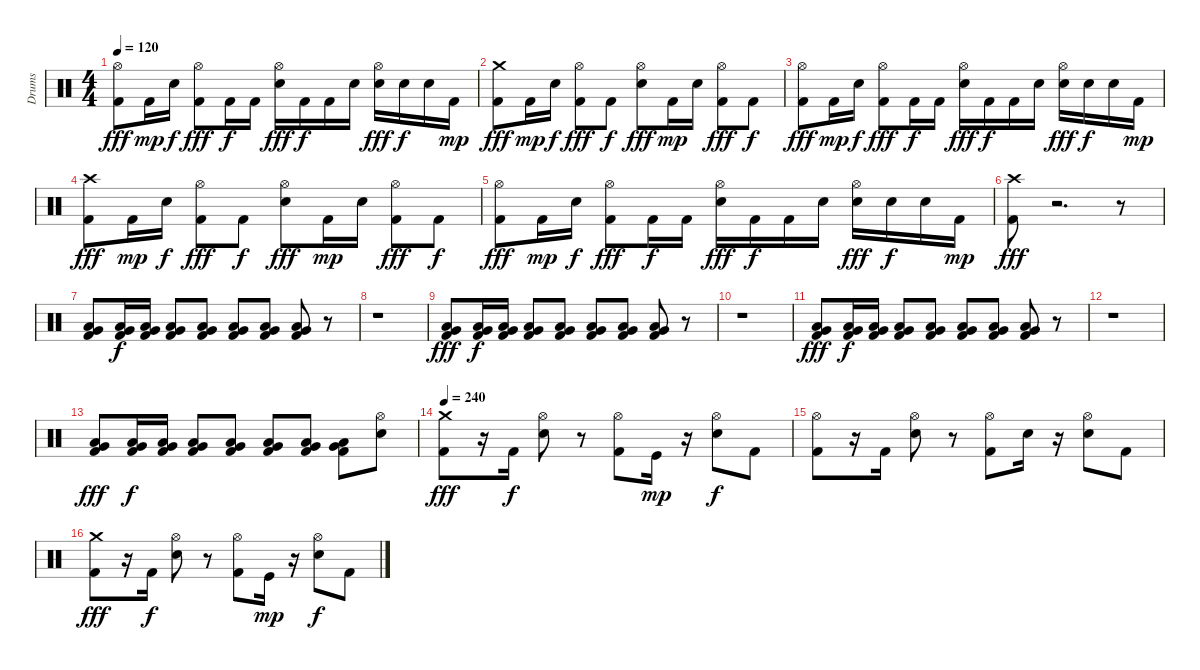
\track ("Drums" "Drums") {instrument percussion}
\staff {score}
\articulation defaults
\ts (4 4)
\tempo 120
\clef neutral
\ks c
("Kick (hit) 2" "Hi-Hat (open)").8{dy fff} "Kick (hit) 2".16{dy mp} "Snare (hit) 2".16{dy f} ("Kick (hit) 2" "Hi-Hat (open)").8{dy fff} "Kick (hit) 2".16{dy f} "Kick (hit) 2".16 ("Electric Snare (hit)" "Hi-Hat (open)").16{dy fff} "Kick (hit) 2".16{dy f} "Kick (hit) 2".16 "Snare (hit) 2".16 ("Snare (hit) 2" "Hi-Hat (open)").16{dy fff} "Snare (hit) 2".16{dy f} "Snare (hit) 2".16 "Kick (hit) 2".16{dy mp} |
("Kick (hit) 2" "Crash medium (hit)").8{dy fff} "Kick (hit) 2".16{dy mp} "Snare (hit) 2".16{dy f} ("Kick (hit) 2" "Hi-Hat (open)").8{dy fff} "Kick (hit) 2".8{dy f} ("Electric Snare (hit)" "Hi-Hat (open)").8{dy fff} "Kick (hit) 2".16{dy mp} "Snare (hit) 2".16 ("Kick (hit) 2" "Hi-Hat (open)").8{dy fff} "Kick (hit) 2".8{dy f} |
("Kick (hit) 2" "Hi-Hat (open)").8{dy fff} "Kick (hit) 2".16{dy mp} "Snare (hit) 2".16{dy f} ("Kick (hit) 2" "Hi-Hat (open)").8{dy fff} "Kick (hit) 2".16{dy f} "Kick (hit) 2".16 ("Electric Snare (hit)" "Hi-Hat (open)").16{dy fff} "Kick (hit) 2".16{dy f} "Kick (hit) 2".16 "Snare (hit) 2".16 ("Snare (hit) 2" "Hi-Hat (open)").16{dy fff} "Snare (hit) 2".16{dy f} "Snare (hit) 2".16 "Kick (hit) 2".16{dy mp} |
("Kick (hit) 2" "Crash high (hit)").8{dy fff} "Kick (hit) 2".16{dy mp} "Snare (hit) 2".16{dy f} ("Kick (hit) 2" "Hi-Hat (open)").8{dy fff} "Kick (hit) 2".8{dy f} ("Electric Snare (hit)" "Hi-Hat (open)").8{dy fff} "Kick (hit) 2".16{dy mp} "Snare (hit) 2".16 ("Kick (hit) 2" "Hi-Hat (open)").8{dy fff} "Kick (hit) 2".8{dy f} |
("Kick (hit) 2" "Hi-Hat (open)").8{dy fff} "Kick (hit) 2".16{dy mp} "Snare (hit) 2".16{dy f} ("Kick (hit) 2" "Hi-Hat (open)").8{dy fff} "Kick (hit) 2".16{dy f} "Kick (hit) 2".16 ("Electric Snare (hit)" "Hi-Hat (open)").16{dy fff} "Kick (hit) 2".16{dy f} "Kick (hit) 2".16 "Snare (hit) 2".16 ("Snare (hit) 2" "Hi-Hat (open)").16{dy fff} "Snare (hit) 2".16{dy f} "Snare (hit) 2".16 "Kick (hit) 2".16{dy mp} |
("Kick (hit) 2" "Crash high (hit)").8{dy fff} r.2{d} r.8 |
("Kick (hit) 2" "Very Low Tom (hit)" "Low Floor Tom (hit)").8 ("Kick (hit) 2" "Very Low Tom (hit)" "Low Floor Tom (hit)").16{dy f} ("Kick (hit) 2" "Very Low Tom (hit)" "Low Floor Tom (hit)").16 ("Kick (hit) 2" "Very Low Tom (hit)" "Low Floor Tom (hit)").8 ("Kick (hit) 2" "Very Low Tom (hit)" "Low Floor Tom (hit)").8 ("Kick (hit) 2" "Very Low Tom (hit)" "Low Floor Tom (hit)").8 ("Kick (hit) 2" "Very Low Tom (hit)" "Low Floor Tom (hit)").8 ("Kick (hit) 2" "Very Low Tom (hit)" "Low Floor Tom (hit)").8 r.8 |
r.1 |
("Kick (hit) 2" "Very Low Tom (hit)" "Low Floor Tom (hit)").8{dy fff} ("Kick (hit) 2" "Very Low Tom (hit)" "Low Floor Tom (hit)").16{dy f} ("Kick (hit) 2" "Very Low Tom (hit)" "Low Floor Tom (hit)").16 ("Kick (hit) 2" "Very Low Tom (hit)" "Low Floor Tom (hit)").8 ("Kick (hit) 2" "Very Low Tom (hit)" "Low Floor Tom (hit)").8 ("Kick (hit) 2" "Very Low Tom (hit)" "Low Floor Tom (hit)").8 ("Kick (hit) 2" "Very Low Tom (hit)" "Low Floor Tom (hit)").8 ("Kick (hit) 2" "Very Low Tom (hit)" "Low Floor Tom (hit)").8 r.8 |
r.1 |
("Kick (hit) 2" "Very Low Tom (hit)" "Low Floor Tom (hit)").8{dy fff} ("Kick (hit) 2" "Very Low Tom (hit)" "Low Floor Tom (hit)").16{dy f} ("Kick (hit) 2" "Very Low Tom (hit)" "Low Floor Tom (hit)").16 ("Kick (hit) 2" "Very Low Tom (hit)" "Low Floor Tom (hit)").8 ("Kick (hit) 2" "Very Low Tom (hit)" "Low Floor Tom (hit)").8 ("Kick (hit) 2" "Very Low Tom (hit)" "Low Floor Tom (hit)").8 ("Kick (hit) 2" "Very Low Tom (hit)" "Low Floor Tom (hit)").8 ("Kick (hit) 2" "Very Low Tom (hit)" "Low Floor Tom (hit)").8 r.8 |
r.1 |
("Kick (hit) 2" "Very Low Tom (hit)" "Low Floor Tom (hit)").8{dy fff} ("Kick (hit) 2" "Very Low Tom (hit)" "Low Floor Tom (hit)").16{dy f} ("Kick (hit) 2" "Very Low Tom (hit)" "Low Floor Tom (hit)").16 ("Kick (hit) 2" "Very Low Tom (hit)" "Low Floor Tom (hit)").8 ("Kick (hit) 2" "Very Low Tom (hit)" "Low Floor Tom (hit)").8 ("Kick (hit) 2" "Very Low Tom (hit)" "Low Floor Tom (hit)").8 ("Kick (hit) 2" "Very Low Tom (hit)" "Low Floor Tom (hit)").8 ("Kick (hit) 2" "Very Low Tom (hit)" "Low Floor Tom (hit)").8 ("Electric Snare (hit)" "Hi-Hat (open)").8 |
\tempo 240
("Kick (hit) 2" "Crash medium (hit)").8{dy fff} r.16 "Kick (hit) 2".16{dy f} ("Electric Snare (hit)" "Hi-Hat (open)").8 r.8 ("Kick (hit) 2" "Hi-Hat (open)").8 "Kick (hit)".16{dy mp} r.16 ("Electric Snare (hit)" "Hi-Hat (open)").8{dy f} "Kick (hit) 2".8 |
("Kick (hit) 2" "Hi-Hat (open)").8 r.16 "Kick (hit) 2".16 ("Electric Snare (hit)" "Hi-Hat (open)").8 r.8 ("Kick (hit) 2" "Hi-Hat (open)").8 "Electric Snare (hit)".16 r.16 ("Electric Snare (hit)" "Hi-Hat (open)").8 "Kick (hit) 2".8 |
("Kick (hit) 2" "Crash medium (hit)").8{dy fff} r.16 "Kick (hit) 2".16{dy f} ("Electric Snare (hit)" "Hi-Hat (open)").8 r.8 ("Kick (hit) 2" "Hi-Hat (open)").8 "Kick (hit)".16{dy mp} r.16 ("Electric Snare (hit)" "Hi-Hat (open)").8{dy f} "Kick (hit) 2".8
